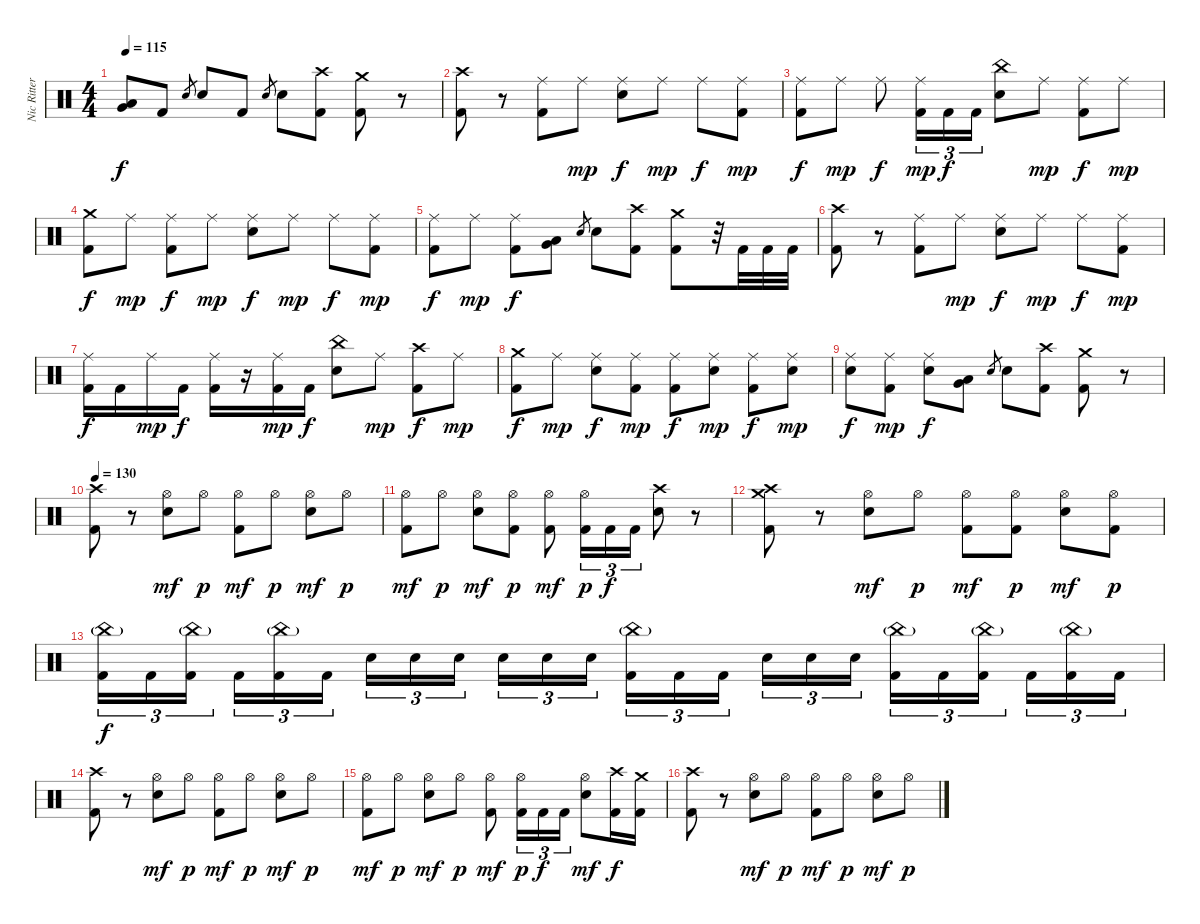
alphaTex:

\track ("Nic Ritter" "Nic Ritter") {instrument percussion}
\staff {score}
\articulation defaults
\ts (4 4)
\tempo 115
\clef neutral
\ks c
("Low Tom (hit)" "Very Low Tom (hit)").8{bd 240 dy f} "Kick (hit) 2".8 "Electric Snare (hit)".8{gr} "Electric Snare (hit)".8 "Kick (hit) 2".8 "Electric Snare (hit)".8{gr} "Electric Snare (hit)".8 ("Crash high (hit)" "Kick (hit) 2").8 ("Crash medium (hit)" "Kick (hit) 2").8 r.8 |
("Crash high (hit)" "Kick (hit) 2").8 r.8 ("Ride (middle)" "Kick (hit) 2").8 "Ride (middle)".8{dy mp} ("Ride (middle)" "Electric Snare (hit)").8{dy f} "Ride (middle)".8{dy mp} "Ride (middle)".8{dy f} ("Ride (middle)" "Kick (hit) 2").8{dy mp} |
("Ride (middle)" "Kick (hit) 2").8{dy f} "Ride (middle)".8{dy mp} "Ride (middle)".8{dy f} ("Ride (middle)" "Kick (hit) 2").16{tu (3 2) dy mp} "Kick (hit) 2".16{tu (3 2) dy f} "Kick (hit) 2".16{tu (3 2)} ("China (hit)" "Electric Snare (hit)").8 "Ride (middle)".8{dy mp} ("Ride (middle)" "Kick (hit) 2").8{dy f} "Ride (middle)".8{dy mp} |
("Crash medium (hit)" "Kick (hit) 2").8{dy f} "Ride (middle)".8{dy mp} ("Ride (middle)" "Kick (hit) 2").8{dy f} "Ride (middle)".8{dy mp} ("Ride (middle)" "Electric Snare (hit)").8{dy f} "Ride (middle)".8{dy mp} "Ride (middle)".8{dy f} ("Ride (middle)" "Kick (hit) 2").8{dy mp} |
("Ride (middle)" "Kick (hit) 2").8{dy f} "Ride (middle)".8{dy mp} ("Ride (middle)" "Kick (hit) 2").8{dy f} ("Low Tom (hit)" "Very Low Tom (hit)").8{bd 240} "Electric Snare (hit)".8{gr} "Electric Snare (hit)".8 ("Crash high (hit)" "Kick (hit) 2").8 ("Crash medium (hit)" "Kick (hit) 2").8 r.32 "Kick (hit) 2".32 "Kick (hit) 2".32 "Kick (hit) 2".32 |
("Crash high (hit)" "Kick (hit) 2").8 r.8 ("Ride (middle)" "Kick (hit) 2").8 "Ride (middle)".8{dy mp} ("Ride (middle)" "Electric Snare (hit)").8{dy f} "Ride (middle)".8{dy mp} "Ride (middle)".8{dy f} ("Ride (middle)" "Kick (hit) 2").8{dy mp} |
("Ride (middle)" "Kick (hit) 2").16{dy f} "Kick (hit) 2".16 "Ride (middle)".16{dy mp} "Kick (hit) 2".16{dy f} ("Ride (middle)" "Kick (hit) 2").16 r.16 ("Ride (middle)" "Kick (hit) 2").16{dy mp} "Kick (hit) 2".16{dy f} ("China (hit)" "Electric Snare (hit)").8 "Ride (middle)".8{dy mp} ("Crash high (hit)" "Kick (hit) 2").8{dy f} "Ride (middle)".8{dy mp} |
("Crash medium (hit)" "Kick (hit) 2").8{dy f} "Ride (middle)".8{dy mp} ("Ride (middle)" "Electric Snare (hit)").8{dy f} ("Ride (middle)" "Kick (hit) 2").8{dy mp} ("Ride (middle)" "Kick (hit) 2").8{dy f} ("Ride (middle)" "Electric Snare (hit)").8{dy mp} ("Ride (middle)" "Kick (hit) 2").8{dy f} ("Ride (middle)" "Electric Snare (hit)").8{dy mp} |
("Ride (middle)" "Electric Snare (hit)").8{dy f} ("Ride (middle)" "Kick (hit) 2").8{dy mp} ("Ride (middle)" "Electric Snare (hit)").8{dy f} ("Low Tom (hit)" "Very Low Tom (hit)").8{bd 240} "Electric Snare (hit)".8{gr} "Electric Snare (hit)".8 ("Crash high (hit)" "Kick (hit) 2").8 ("Crash medium (hit)" "Kick (hit) 2").8 r.8 |
\tempo 130
("Crash high (hit)" "Kick (hit) 2").8 r.8 ("Hi-Hat (open)" "Electric Snare (hit)").8{dy mf} "Hi-Hat (open)".8{dy p} ("Hi-Hat (open)" "Kick (hit) 2").8{dy mf} "Hi-Hat (open)".8{dy p} ("Hi-Hat (open)" "Electric Snare (hit)").8{dy mf} "Hi-Hat (open)".8{dy p} |
("Hi-Hat (open)" "Kick (hit) 2").8{dy mf} "Hi-Hat (open)".8{dy p} ("Hi-Hat (open)" "Electric Snare (hit)").8{dy mf} ("Hi-Hat (open)" "Kick (hit) 2").8{dy p} ("Hi-Hat (open)" "Kick (hit) 2").8{dy mf} ("Hi-Hat (open)" "Kick (hit) 2").16{tu (3 2) dy p} "Kick (hit) 2".16{tu (3 2) dy f} "Kick (hit) 2".16{tu (3 2)} ("Crash high (hit)" "Electric Snare (hit)").8 r.8 |
("Crash medium (hit)" "Crash high (hit)" "Kick (hit) 2").8 r.8 ("Hi-Hat (open)" "Electric Snare (hit)").8{dy mf} "Hi-Hat (open)".8{dy p} ("Hi-Hat (open)" "Kick (hit) 2").8{dy mf} ("Hi-Hat (open)" "Kick (hit) 2").8{dy p} ("Hi-Hat (open)" "Electric Snare (hit)").8{dy mf} ("Hi-Hat (open)" "Kick (hit) 2").8{dy p} |
("China (hit)"{g} "Kick (hit) 2").16{tu (3 2) dy f} "Kick (hit) 2".16{tu (3 2)} ("China (hit)"{g} "Kick (hit) 2").16{tu (3 2) beam splitsecondary} "Kick (hit) 2".16{tu (3 2)} ("China (hit)"{g} "Kick (hit) 2").16{tu (3 2)} "Kick (hit) 2".16{tu (3 2)} "Electric Snare (hit)".16{tu (3 2)} "Electric Snare (hit)".16{tu (3 2)} "Electric Snare (hit)".16{tu (3 2) beam splitsecondary} "Electric Snare (hit)".16{tu (3 2)} "Electric Snare (hit)".16{tu (3 2)} "Electric Snare (hit)".16{tu (3 2)} ("China (hit)"{g} "Kick (hit) 2").16{tu (3 2)} "Kick (hit) 2".16{tu (3 2)} "Kick (hit) 2".16{tu (3 2) beam splitsecondary} "Electric Snare (hit)".16{tu (3 2)} "Electric Snare (hit)".16{tu (3 2)} "Electric Snare (hit)".16{tu (3 2)} ("China (hit)"{g} "Kick (hit) 2").16{tu (3 2)} "Kick (hit) 2".16{tu (3 2)} ("China (hit)"{g} "Kick (hit) 2").16{tu (3 2) beam splitsecondary} "Kick (hit) 2".16{tu (3 2)} ("China (hit)"{g} "Kick (hit) 2").16{tu (3 2)} "Kick (hit) 2".16{tu (3 2)} |
("Crash high (hit)" "Kick (hit) 2").8 r.8 ("Hi-Hat (open)" "Electric Snare (hit)").8{dy mf} "Hi-Hat (open)".8{dy p} ("Hi-Hat (open)" "Kick (hit) 2").8{dy mf} "Hi-Hat (open)".8{dy p} ("Hi-Hat (open)" "Electric Snare (hit)").8{dy mf} "Hi-Hat (open)".8{dy p} |
("Hi-Hat (open)" "Kick (hit) 2").8{dy mf} "Hi-Hat (open)".8{dy p} ("Hi-Hat (open)" "Electric Snare (hit)").8{dy mf} "Hi-Hat (open)".8{dy p} ("Hi-Hat (open)" "Kick (hit) 2").8{dy mf} ("Hi-Hat (open)" "Kick (hit) 2").16{tu (3 2) dy p} "Kick (hit) 2".16{tu (3 2) dy f} "Kick (hit) 2".16{tu (3 2)} ("Hi-Hat (open)" "Electric Snare (hit)").8{dy mf} ("Crash high (hit)" "Kick (hit) 2").16{dy f} ("Crash medium (hit)" "Kick (hit) 2").16 |
("Crash high (hit)" "Kick (hit) 2").8 r.8 ("Hi-Hat (open)" "Electric Snare (hit)").8{dy mf} "Hi-Hat (open)".8{dy p} ("Hi-Hat (open)" "Kick (hit) 2").8{dy mf} "Hi-Hat (open)".8{dy p} ("Hi-Hat (open)" "Electric Snare (hit)").8{dy mf} "Hi-Hat (open)".8{dy p}
